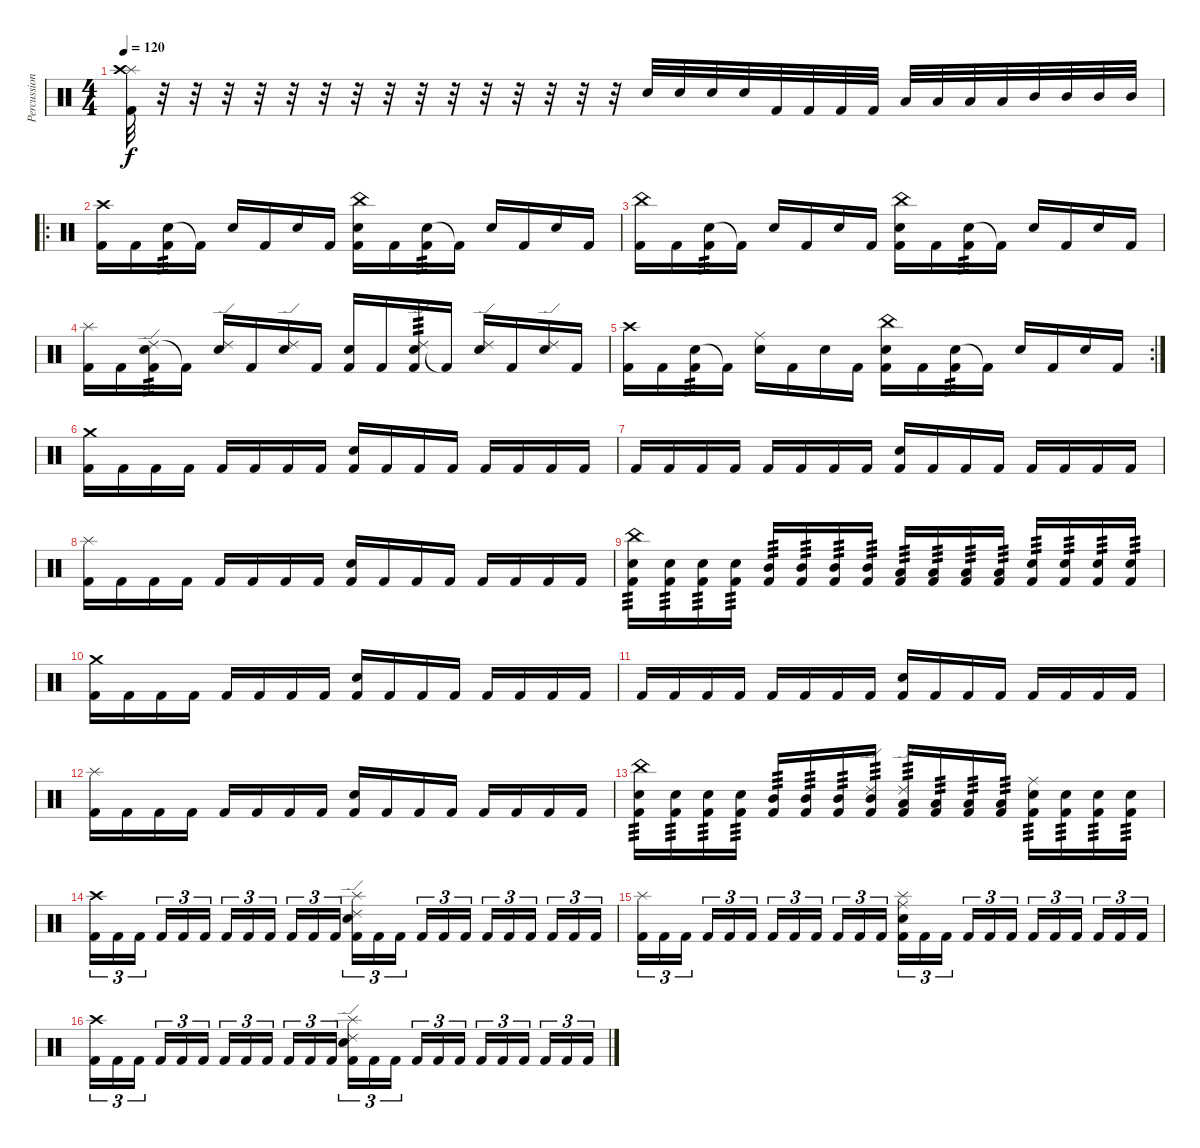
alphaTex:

\track ("Percussion" "Percussion") {instrument percussion}
\staff {score}
\articulation defaults
\ts (4 4)
\tempo 120
\clef neutral
\ks c
("Splash (hit)" "Crash high (hit)" "Kick (hit) 2").32{dy f} r.32 r.32 r.32 r.32 r.32 r.32 r.32 r.32 r.32 r.32 r.32 r.32 r.32 r.32 r.32 "Electric Snare (hit)".32 "Electric Snare (hit)".32 "Electric Snare (hit)".32 "Electric Snare (hit)".32 "Kick (hit) 2".32 "Kick (hit) 2".32 "Kick (hit) 2".32 "Kick (hit) 2".32 "Low Tom (hit)".32 "Low Tom (hit)".32 "Low Tom (hit)".32 "Low Tom (hit)".32 "Mid Tom (hit)".32 "Mid Tom (hit)".32 "Mid Tom (hit)".32 "Mid Tom (hit)".32 |
\ro
("Crash high (hit)" "Kick (hit) 2").16 "Kick (hit) 2".16 ("Electric Snare (hit)" "Kick (hit) 2").16{tp 3} "Kick (hit) 2"{t}.16 "Electric Snare (hit)".16 "Kick (hit) 2".16 "Electric Snare (hit)".16 "Kick (hit) 2".16 ("China (hit)" "Electric Snare (hit)" "Kick (hit) 2").16 "Kick (hit) 2".16 ("Electric Snare (hit)" "Kick (hit) 2").16{tp 3} "Kick (hit) 2"{t}.16 "Electric Snare (hit)".16 "Kick (hit) 2".16 "Electric Snare (hit)".16 "Kick (hit) 2".16 |
("China (hit)" "Kick (hit) 2").16 "Kick (hit) 2".16 ("Electric Snare (hit)" "Kick (hit) 2").16{tp 3} "Kick (hit) 2"{t}.16 "Electric Snare (hit)".16 "Kick (hit) 2".16 "Electric Snare (hit)".16 "Kick (hit) 2".16 ("China (hit)" "Electric Snare (hit)" "Kick (hit) 2").16 "Kick (hit) 2".16 ("Electric Snare (hit)" "Kick (hit) 2").16{tp 3} "Kick (hit) 2"{t}.16 "Electric Snare (hit)".16 "Kick (hit) 2".16 "Electric Snare (hit)".16 "Kick (hit) 2".16 |
("Splash (hit)" "Kick (hit) 2").16 "Kick (hit) 2".16 ("Ride (edge) 2" "Electric Snare (hit)" "Kick (hit) 2").16{tp 3} "Kick (hit) 2"{t}.16 ("Ride (edge) 2" "Electric Snare (hit)").16 "Kick (hit) 2".16 ("Ride (edge) 2" "Electric Snare (hit)").16 "Kick (hit) 2".16 ("Electric Snare (hit)" "Kick (hit) 2").16 "Kick (hit) 2".16 ("Ride (edge) 2" "Electric Snare (hit)" "Kick (hit) 2").16{tp 3} "Kick (hit) 2"{t}.16 ("Ride (edge) 2" "Electric Snare (hit)").16 "Kick (hit) 2".16 ("Ride (edge) 2" "Electric Snare (hit)").16 "Kick (hit) 2".16 |
\rc 2
("Crash high (hit)" "Kick (hit) 2").16 "Kick (hit) 2".16 ("Electric Snare (hit)" "Kick (hit) 2").16{tp 3} "Kick (hit) 2"{t}.16 ("Ride (middle)" "Electric Snare (hit)").16 "Kick (hit) 2".16 "Electric Snare (hit)".16 "Kick (hit) 2".16 ("China (hit)" "Electric Snare (hit)" "Kick (hit) 2").16 "Kick (hit) 2".16 ("Electric Snare (hit)" "Kick (hit) 2").16{tp 3} "Kick (hit) 2"{t}.16 "Electric Snare (hit)".16 "Kick (hit) 2".16 "Electric Snare (hit)".16 "Kick (hit) 2".16 |
("Crash medium (hit)" "Kick (hit) 2").16 "Kick (hit) 2".16 "Kick (hit) 2".16 "Kick (hit) 2".16 "Kick (hit) 2".16 "Kick (hit) 2".16 "Kick (hit) 2".16 "Kick (hit) 2".16 ("Electric Snare (hit)" "Kick (hit) 2").16 "Kick (hit) 2".16 "Kick (hit) 2".16 "Kick (hit) 2".16 "Kick (hit) 2".16 "Kick (hit) 2".16 "Kick (hit) 2".16 "Kick (hit) 2".16 |
"Kick (hit) 2".16 "Kick (hit) 2".16 "Kick (hit) 2".16 "Kick (hit) 2".16 "Kick (hit) 2".16 "Kick (hit) 2".16 "Kick (hit) 2".16 "Kick (hit) 2".16 ("Electric Snare (hit)" "Kick (hit) 2").16 "Kick (hit) 2".16 "Kick (hit) 2".16 "Kick (hit) 2".16 "Kick (hit) 2".16 "Kick (hit) 2".16 "Kick (hit) 2".16 "Kick (hit) 2".16 |
("Splash (hit)" "Kick (hit) 2").16 "Kick (hit) 2".16 "Kick (hit) 2".16 "Kick (hit) 2".16 "Kick (hit) 2".16 "Kick (hit) 2".16 "Kick (hit) 2".16 "Kick (hit) 2".16 ("Electric Snare (hit)" "Kick (hit) 2").16 "Kick (hit) 2".16 "Kick (hit) 2".16 "Kick (hit) 2".16 "Kick (hit) 2".16 "Kick (hit) 2".16 "Kick (hit) 2".16 "Kick (hit) 2".16 |
("China (hit)" "Electric Snare (hit)" "Kick (hit) 2").16{tp 3} ("Electric Snare (hit)" "Kick (hit) 2").16{tp 3} ("Electric Snare (hit)" "Kick (hit) 2").16{tp 3} ("Electric Snare (hit)" "Kick (hit) 2").16{tp 3} ("Mid Tom (hit)" "Kick (hit) 2").16{tp 3} ("Mid Tom (hit)" "Kick (hit) 2").16{tp 3} ("Mid Tom (hit)" "Kick (hit) 2").16{tp 3} ("Mid Tom (hit)" "Kick (hit) 2").16{tp 3} ("Low Tom (hit)" "Kick (hit) 2").16{tp 3} ("Low Tom (hit)" "Kick (hit) 2").16{tp 3} ("Low Tom (hit)" "Kick (hit) 2").16{tp 3} ("Low Tom (hit)" "Kick (hit) 2").16{tp 3} ("Electric Snare (hit)" "Kick (hit) 2").16{tp 3} ("Electric Snare (hit)" "Kick (hit) 2").16{tp 3} ("Electric Snare (hit)" "Kick (hit) 2").16{tp 3} ("Electric Snare (hit)" "Kick (hit) 2").16{tp 3} |
("Crash medium (hit)" "Kick (hit) 2").16 "Kick (hit) 2".16 "Kick (hit) 2".16 "Kick (hit) 2".16 "Kick (hit) 2".16 "Kick (hit) 2".16 "Kick (hit) 2".16 "Kick (hit) 2".16 ("Electric Snare (hit)" "Kick (hit) 2").16 "Kick (hit) 2".16 "Kick (hit) 2".16 "Kick (hit) 2".16 "Kick (hit) 2".16 "Kick (hit) 2".16 "Kick (hit) 2".16 "Kick (hit) 2".16 |
"Kick (hit) 2".16 "Kick (hit) 2".16 "Kick (hit) 2".16 "Kick (hit) 2".16 "Kick (hit) 2".16 "Kick (hit) 2".16 "Kick (hit) 2".16 "Kick (hit) 2".16 ("Electric Snare (hit)" "Kick (hit) 2").16 "Kick (hit) 2".16 "Kick (hit) 2".16 "Kick (hit) 2".16 "Kick (hit) 2".16 "Kick (hit) 2".16 "Kick (hit) 2".16 "Kick (hit) 2".16 |
("Splash (hit)" "Kick (hit) 2").16 "Kick (hit) 2".16 "Kick (hit) 2".16 "Kick (hit) 2".16 "Kick (hit) 2".16 "Kick (hit) 2".16 "Kick (hit) 2".16 "Kick (hit) 2".16 ("Electric Snare (hit)" "Kick (hit) 2").16 "Kick (hit) 2".16 "Kick (hit) 2".16 "Kick (hit) 2".16 "Kick (hit) 2".16 "Kick (hit) 2".16 "Kick (hit) 2".16 "Kick (hit) 2".16 |
("China (hit)" "Electric Snare (hit)" "Kick (hit) 2").16{tp 3} ("Electric Snare (hit)" "Kick (hit) 2").16{tp 3} ("Electric Snare (hit)" "Kick (hit) 2").16{tp 3} ("Electric Snare (hit)" "Kick (hit) 2").16{tp 3} ("Mid Tom (hit)" "Kick (hit) 2").16{tp 3} ("Mid Tom (hit)" "Kick (hit) 2").16{tp 3} ("Mid Tom (hit)" "Kick (hit) 2").16{tp 3} ("Ride (edge) 2" "Mid Tom (hit)" "Kick (hit) 2").16{tp 3} ("Ride (edge) 2" "Low Tom (hit)" "Kick (hit) 2").16{tp 3} ("Low Tom (hit)" "Kick (hit) 2").16{tp 3} ("Low Tom (hit)" "Kick (hit) 2").16{tp 3} ("Low Tom (hit)" "Kick (hit) 2").16{tp 3} ("Ride (middle)" "Electric Snare (hit)" "Kick (hit) 2").16{tp 3} ("Electric Snare (hit)" "Kick (hit) 2").16{tp 3} ("Electric Snare (hit)" "Kick (hit) 2").16{tp 3} ("Electric Snare (hit)" "Kick (hit) 2").16{tp 3} |
("Crash high (hit)" "Kick (hit) 2").16{tu (3 2)} "Kick (hit) 2".16{tu (3 2)} "Kick (hit) 2".16{tu (3 2) beam splitsecondary} "Kick (hit) 2".16{tu (3 2)} "Kick (hit) 2".16{tu (3 2)} "Kick (hit) 2".16{tu (3 2)} "Kick (hit) 2".16{tu (3 2)} "Kick (hit) 2".16{tu (3 2)} "Kick (hit) 2".16{tu (3 2) beam splitsecondary} "Kick (hit) 2".16{tu (3 2)} "Kick (hit) 2".16{tu (3 2)} "Kick (hit) 2".16{tu (3 2)} ("Ride (edge) 2" "Splash (hit)" "Electric Snare (hit)" "Kick (hit) 2").16{tu (3 2)} "Kick (hit) 2".16{tu (3 2)} "Kick (hit) 2".16{tu (3 2) beam splitsecondary} "Kick (hit) 2".16{tu (3 2)} "Kick (hit) 2".16{tu (3 2)} "Kick (hit) 2".16{tu (3 2)} "Kick (hit) 2".16{tu (3 2)} "Kick (hit) 2".16{tu (3 2)} "Kick (hit) 2".16{tu (3 2) beam splitsecondary} "Kick (hit) 2".16{tu (3 2)} "Kick (hit) 2".16{tu (3 2)} "Kick (hit) 2".16{tu (3 2)} |
("Splash (hit)" "Kick (hit) 2").16{tu (3 2)} "Kick (hit) 2".16{tu (3 2)} "Kick (hit) 2".16{tu (3 2) beam splitsecondary} "Kick (hit) 2".16{tu (3 2)} "Kick (hit) 2".16{tu (3 2)} "Kick (hit) 2".16{tu (3 2)} "Kick (hit) 2".16{tu (3 2)} "Kick (hit) 2".16{tu (3 2)} "Kick (hit) 2".16{tu (3 2) beam splitsecondary} "Kick (hit) 2".16{tu (3 2)} "Kick (hit) 2".16{tu (3 2)} "Kick (hit) 2".16{tu (3 2)} ("Ride (middle)" "Splash (hit)" "Electric Snare (hit)" "Kick (hit) 2").16{tu (3 2)} "Kick (hit) 2".16{tu (3 2)} "Kick (hit) 2".16{tu (3 2) beam splitsecondary} "Kick (hit) 2".16{tu (3 2)} "Kick (hit) 2".16{tu (3 2)} "Kick (hit) 2".16{tu (3 2)} "Kick (hit) 2".16{tu (3 2)} "Kick (hit) 2".16{tu (3 2)} "Kick (hit) 2".16{tu (3 2) beam splitsecondary} "Kick (hit) 2".16{tu (3 2)} "Kick (hit) 2".16{tu (3 2)} "Kick (hit) 2".16{tu (3 2)} |
("Crash high (hit)" "Kick (hit) 2").16{tu (3 2)} "Kick (hit) 2".16{tu (3 2)} "Kick (hit) 2".16{tu (3 2) beam splitsecondary} "Kick (hit) 2".16{tu (3 2)} "Kick (hit) 2".16{tu (3 2)} "Kick (hit) 2".16{tu (3 2)} "Kick (hit) 2".16{tu (3 2)} "Kick (hit) 2".16{tu (3 2)} "Kick (hit) 2".16{tu (3 2) beam splitsecondary} "Kick (hit) 2".16{tu (3 2)} "Kick (hit) 2".16{tu (3 2)} "Kick (hit) 2".16{tu (3 2)} ("Ride (edge) 2" "Splash (hit)" "Electric Snare (hit)" "Kick (hit) 2").16{tu (3 2)} "Kick (hit) 2".16{tu (3 2)} "Kick (hit) 2".16{tu (3 2) beam splitsecondary} "Kick (hit) 2".16{tu (3 2)} "Kick (hit) 2".16{tu (3 2)} "Kick (hit) 2".16{tu (3 2)} "Kick (hit) 2".16{tu (3 2)} "Kick (hit) 2".16{tu (3 2)} "Kick (hit) 2".16{tu (3 2) beam splitsecondary} "Kick (hit) 2".16{tu (3 2)} "Kick (hit) 2".16{tu (3 2)} "Kick (hit) 2".16{tu (3 2)}
